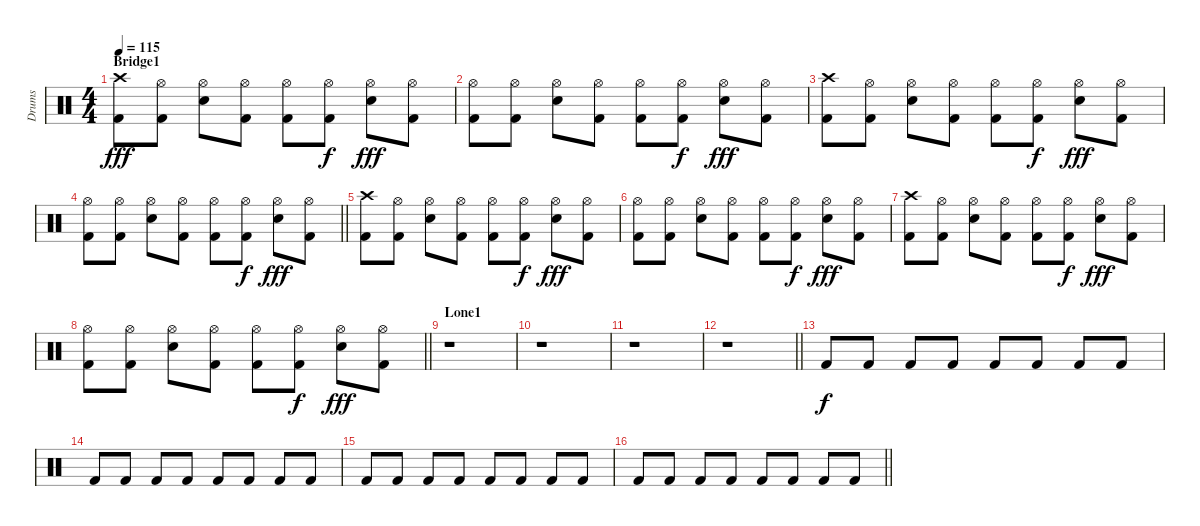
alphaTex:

\track ("Drums" "Drums") {instrument percussion}
\staff {score}
\articulation defaults
\ts (4 4)
\section ("" "Bridge1")
\tempo 115
\clef neutral
\ks c
("Crash high (hit)" "Kick (hit) 2").8{dy fff} ("Hi-Hat (open)" "Kick (hit) 2").8 ("Hi-Hat (open)" "Electric Snare (hit)").8 ("Hi-Hat (open)" "Kick (hit) 2").8 ("Hi-Hat (open)" "Kick (hit) 2").8 ("Hi-Hat (open)" "Kick (hit) 2").8{dy f} ("Hi-Hat (open)" "Electric Snare (hit)").8{dy fff} ("Hi-Hat (open)" "Kick (hit) 2").8 |
("Hi-Hat (open)" "Kick (hit) 2").8 ("Hi-Hat (open)" "Kick (hit) 2").8 ("Hi-Hat (open)" "Electric Snare (hit)").8 ("Hi-Hat (open)" "Kick (hit) 2").8 ("Hi-Hat (open)" "Kick (hit) 2").8 ("Hi-Hat (open)" "Kick (hit) 2").8{dy f} ("Hi-Hat (open)" "Electric Snare (hit)").8{dy fff} ("Hi-Hat (open)" "Kick (hit) 2").8 |
("Crash high (hit)" "Kick (hit) 2").8 ("Hi-Hat (open)" "Kick (hit) 2").8 ("Hi-Hat (open)" "Electric Snare (hit)").8 ("Hi-Hat (open)" "Kick (hit) 2").8 ("Hi-Hat (open)" "Kick (hit) 2").8 ("Hi-Hat (open)" "Kick (hit) 2").8{dy f} ("Hi-Hat (open)" "Electric Snare (hit)").8{dy fff} ("Hi-Hat (open)" "Kick (hit) 2").8 |
\barLineRight lightlight
("Hi-Hat (open)" "Kick (hit) 2").8 ("Hi-Hat (open)" "Kick (hit) 2").8 ("Hi-Hat (open)" "Electric Snare (hit)").8 ("Hi-Hat (open)" "Kick (hit) 2").8 ("Hi-Hat (open)" "Kick (hit) 2").8 ("Hi-Hat (open)" "Kick (hit) 2").8{dy f} ("Hi-Hat (open)" "Electric Snare (hit)").8{dy fff} ("Hi-Hat (open)" "Kick (hit) 2").8 |
("Crash high (hit)" "Kick (hit) 2").8 ("Hi-Hat (open)" "Kick (hit) 2").8 ("Hi-Hat (open)" "Electric Snare (hit)").8 ("Hi-Hat (open)" "Kick (hit) 2").8 ("Hi-Hat (open)" "Kick (hit) 2").8 ("Hi-Hat (open)" "Kick (hit) 2").8{dy f} ("Hi-Hat (open)" "Electric Snare (hit)").8{dy fff} ("Hi-Hat (open)" "Kick (hit) 2").8 |
("Hi-Hat (open)" "Kick (hit) 2").8 ("Hi-Hat (open)" "Kick (hit) 2").8 ("Hi-Hat (open)" "Electric Snare (hit)").8 ("Hi-Hat (open)" "Kick (hit) 2").8 ("Hi-Hat (open)" "Kick (hit) 2").8 ("Hi-Hat (open)" "Kick (hit) 2").8{dy f} ("Hi-Hat (open)" "Electric Snare (hit)").8{dy fff} ("Hi-Hat (open)" "Kick (hit) 2").8 |
("Crash high (hit)" "Kick (hit) 2").8 ("Hi-Hat (open)" "Kick (hit) 2").8 ("Hi-Hat (open)" "Electric Snare (hit)").8 ("Hi-Hat (open)" "Kick (hit) 2").8 ("Hi-Hat (open)" "Kick (hit) 2").8 ("Hi-Hat (open)" "Kick (hit) 2").8{dy f} ("Hi-Hat (open)" "Electric Snare (hit)").8{dy fff} ("Hi-Hat (open)" "Kick (hit) 2").8 |
\barLineRight lightlight
("Hi-Hat (open)" "Kick (hit) 2").8 ("Hi-Hat (open)" "Kick (hit) 2").8 ("Hi-Hat (open)" "Electric Snare (hit)").8 ("Hi-Hat (open)" "Kick (hit) 2").8 ("Hi-Hat (open)" "Kick (hit) 2").8 ("Hi-Hat (open)" "Kick (hit) 2").8{dy f} ("Hi-Hat (open)" "Electric Snare (hit)").8{dy fff} ("Hi-Hat (open)" "Kick (hit) 2").8 |
\section ("" "Lone1")
r.1 |
r.1 |
r.1 |
\barLineRight lightlight
r.1 |
"Kick (hit) 2".8{dy f} "Kick (hit) 2".8 "Kick (hit) 2".8 "Kick (hit) 2".8 "Kick (hit) 2".8 "Kick (hit) 2".8 "Kick (hit) 2".8 "Kick (hit) 2".8 |
"Kick (hit) 2".8 "Kick (hit) 2".8 "Kick (hit) 2".8 "Kick (hit) 2".8 "Kick (hit) 2".8 "Kick (hit) 2".8 "Kick (hit) 2".8 "Kick (hit) 2".8 |
"Kick (hit) 2".8 "Kick (hit) 2".8 "Kick (hit) 2".8 "Kick (hit) 2".8 "Kick (hit) 2".8 "Kick (hit) 2".8 "Kick (hit) 2".8 "Kick (hit) 2".8 |
\barLineRight lightlight "Kick (hit) 2".8 "Kick (hit) 2".8 "Kick (hit) 2".8 "Kick (hit) 2".8 "Kick (hit) 2".8 "Kick (hit) 2".8 "Kick (hit) 2".8 "Kick (hit) 2".8
